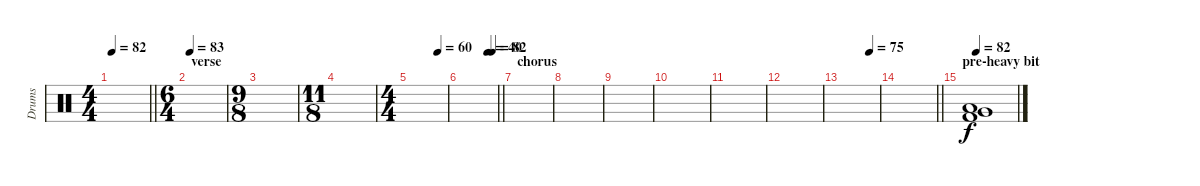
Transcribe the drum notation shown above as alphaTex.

\track ("Drums" "Drums") {instrument percussion}
\staff {score}
\articulation defaults
\ts (4 4)
\tempo 82
\clef neutral
\barLineRight lightlight
\ks c
|
\ts (6 4)
\section ("" "verse")
\tempo 83
|
\ts (9 8)
|
\ts (11 8)
|
\ts (4 4)
\tempo (60 0.75)
|
\tempo (40 0.75)
\tempo (82 0.875)
\barLineRight lightlight
|
\section ("" "chorus")
|
|
|
|
|
|
\tempo (75 0.75)
|
\barLineRight lightlight
|
\section ("" "pre-heavy bit")
\tempo 82
("Low Floor Tom (hit)" "Very Low Tom (hit)" "Kick (hit) 2").1{dy f}
